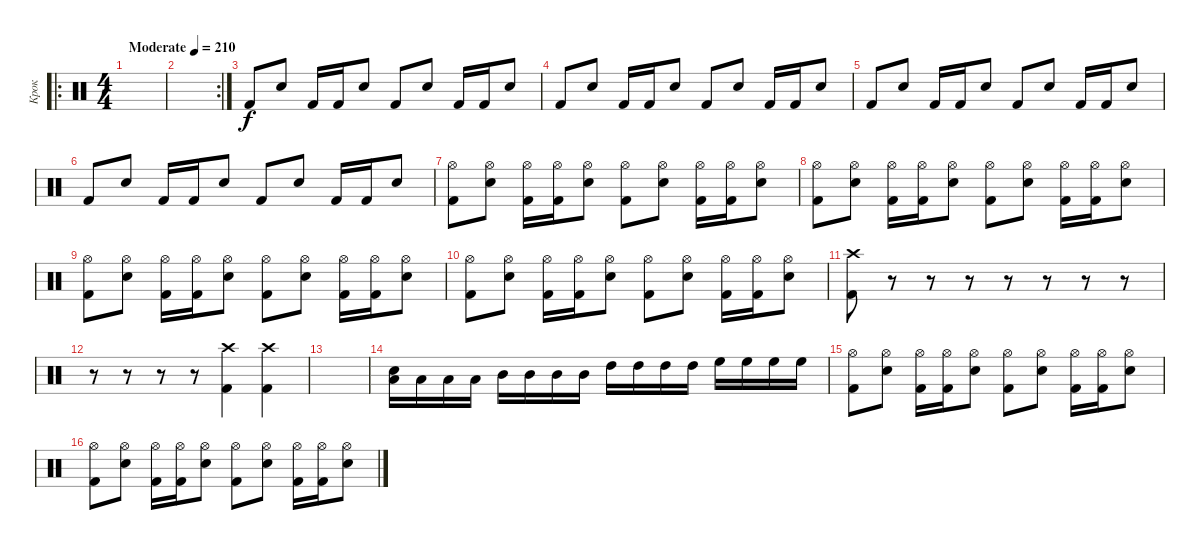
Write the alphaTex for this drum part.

\track ("Крок" "Крок") {instrument percussion}
\staff {score}
\articulation defaults
\ro
\ts (4 4)
\tempo (210 "Moderate")
\clef neutral
\ks c
|
\rc 2
|
"Kick (hit) 2".8 "Electric Snare (hit)".8 "Kick (hit) 2".16 "Kick (hit) 2".16 "Electric Snare (hit)".8 "Kick (hit) 2".8 "Electric Snare (hit)".8 "Kick (hit) 2".16 "Kick (hit) 2".16 "Electric Snare (hit)".8 |
"Kick (hit) 2".8 "Electric Snare (hit)".8 "Kick (hit) 2".16 "Kick (hit) 2".16 "Electric Snare (hit)".8 "Kick (hit) 2".8 "Electric Snare (hit)".8 "Kick (hit) 2".16 "Kick (hit) 2".16 "Electric Snare (hit)".8 |
"Kick (hit) 2".8 "Electric Snare (hit)".8 "Kick (hit) 2".16 "Kick (hit) 2".16 "Electric Snare (hit)".8 "Kick (hit) 2".8 "Electric Snare (hit)".8 "Kick (hit) 2".16 "Kick (hit) 2".16 "Electric Snare (hit)".8 |
"Kick (hit) 2".8 "Electric Snare (hit)".8 "Kick (hit) 2".16 "Kick (hit) 2".16 "Electric Snare (hit)".8 "Kick (hit) 2".8 "Electric Snare (hit)".8 "Kick (hit) 2".16 "Kick (hit) 2".16 "Electric Snare (hit)".8 |
("Hi-Hat (open)" "Kick (hit) 2").8 ("Hi-Hat (open)" "Electric Snare (hit)").8 ("Hi-Hat (open)" "Kick (hit) 2").16 ("Hi-Hat (open)" "Kick (hit) 2").16 ("Hi-Hat (open)" "Electric Snare (hit)").8 ("Hi-Hat (open)" "Kick (hit) 2").8 ("Hi-Hat (open)" "Electric Snare (hit)").8 ("Hi-Hat (open)" "Kick (hit) 2").16 ("Hi-Hat (open)" "Kick (hit) 2").16 ("Hi-Hat (open)" "Electric Snare (hit)").8 |
("Hi-Hat (open)" "Kick (hit) 2").8 ("Hi-Hat (open)" "Electric Snare (hit)").8 ("Hi-Hat (open)" "Kick (hit) 2").16 ("Hi-Hat (open)" "Kick (hit) 2").16 ("Hi-Hat (open)" "Electric Snare (hit)").8 ("Hi-Hat (open)" "Kick (hit) 2").8 ("Hi-Hat (open)" "Electric Snare (hit)").8 ("Hi-Hat (open)" "Kick (hit) 2").16 ("Hi-Hat (open)" "Kick (hit) 2").16 ("Hi-Hat (open)" "Electric Snare (hit)").8 |
("Hi-Hat (open)" "Kick (hit) 2").8 ("Hi-Hat (open)" "Electric Snare (hit)").8 ("Hi-Hat (open)" "Kick (hit) 2").16 ("Hi-Hat (open)" "Kick (hit) 2").16 ("Hi-Hat (open)" "Electric Snare (hit)").8 ("Hi-Hat (open)" "Kick (hit) 2").8 ("Hi-Hat (open)" "Electric Snare (hit)").8 ("Hi-Hat (open)" "Kick (hit) 2").16 ("Hi-Hat (open)" "Kick (hit) 2").16 ("Hi-Hat (open)" "Electric Snare (hit)").8 |
("Hi-Hat (open)" "Kick (hit) 2").8 ("Hi-Hat (open)" "Electric Snare (hit)").8 ("Hi-Hat (open)" "Kick (hit) 2").16 ("Hi-Hat (open)" "Kick (hit) 2").16 ("Hi-Hat (open)" "Electric Snare (hit)").8 ("Hi-Hat (open)" "Kick (hit) 2").8 ("Hi-Hat (open)" "Electric Snare (hit)").8 ("Hi-Hat (open)" "Kick (hit) 2").16 ("Hi-Hat (open)" "Kick (hit) 2").16 ("Hi-Hat (open)" "Electric Snare (hit)").8 |
("Crash high (hit)" "Kick (hit) 2").8 r.8 r.8 r.8 r.8 r.8 r.8 r.8 |
r.8 r.8 r.8 r.8 ("Crash high (hit)" "Kick (hit) 2").4 ("Crash high (hit)" "Kick (hit) 2").4 |
|
("Low Tom (hit)" "Electric Snare (hit)").16 "Low Tom (hit)".16 "Low Tom (hit)".16 "Low Tom (hit)".16 "Mid Tom (hit)".16 "Mid Tom (hit)".16 "Mid Tom (hit)".16 "Mid Tom (hit)".16 "High Tom (hit)".16 "High Tom (hit)".16 "High Tom (hit)".16 "High Tom (hit)".16 "High Floor Tom (hit)".16 "High Floor Tom (hit)".16 "High Floor Tom (hit)".16 "High Floor Tom (hit)".16 |
("Hi-Hat (open)" "Kick (hit) 2").8 ("Hi-Hat (open)" "Electric Snare (hit)").8 ("Hi-Hat (open)" "Kick (hit) 2").16 ("Hi-Hat (open)" "Kick (hit) 2").16 ("Hi-Hat (open)" "Electric Snare (hit)").8 ("Hi-Hat (open)" "Kick (hit) 2").8 ("Hi-Hat (open)" "Electric Snare (hit)").8 ("Hi-Hat (open)" "Kick (hit) 2").16 ("Hi-Hat (open)" "Kick (hit) 2").16 ("Hi-Hat (open)" "Electric Snare (hit)").8 |
("Hi-Hat (open)" "Kick (hit) 2").8 ("Hi-Hat (open)" "Electric Snare (hit)").8 ("Hi-Hat (open)" "Kick (hit) 2").16 ("Hi-Hat (open)" "Kick (hit) 2").16 ("Hi-Hat (open)" "Electric Snare (hit)").8 ("Hi-Hat (open)" "Kick (hit) 2").8 ("Hi-Hat (open)" "Electric Snare (hit)").8 ("Hi-Hat (open)" "Kick (hit) 2").16 ("Hi-Hat (open)" "Kick (hit) 2").16 ("Hi-Hat (open)" "Electric Snare (hit)").8
